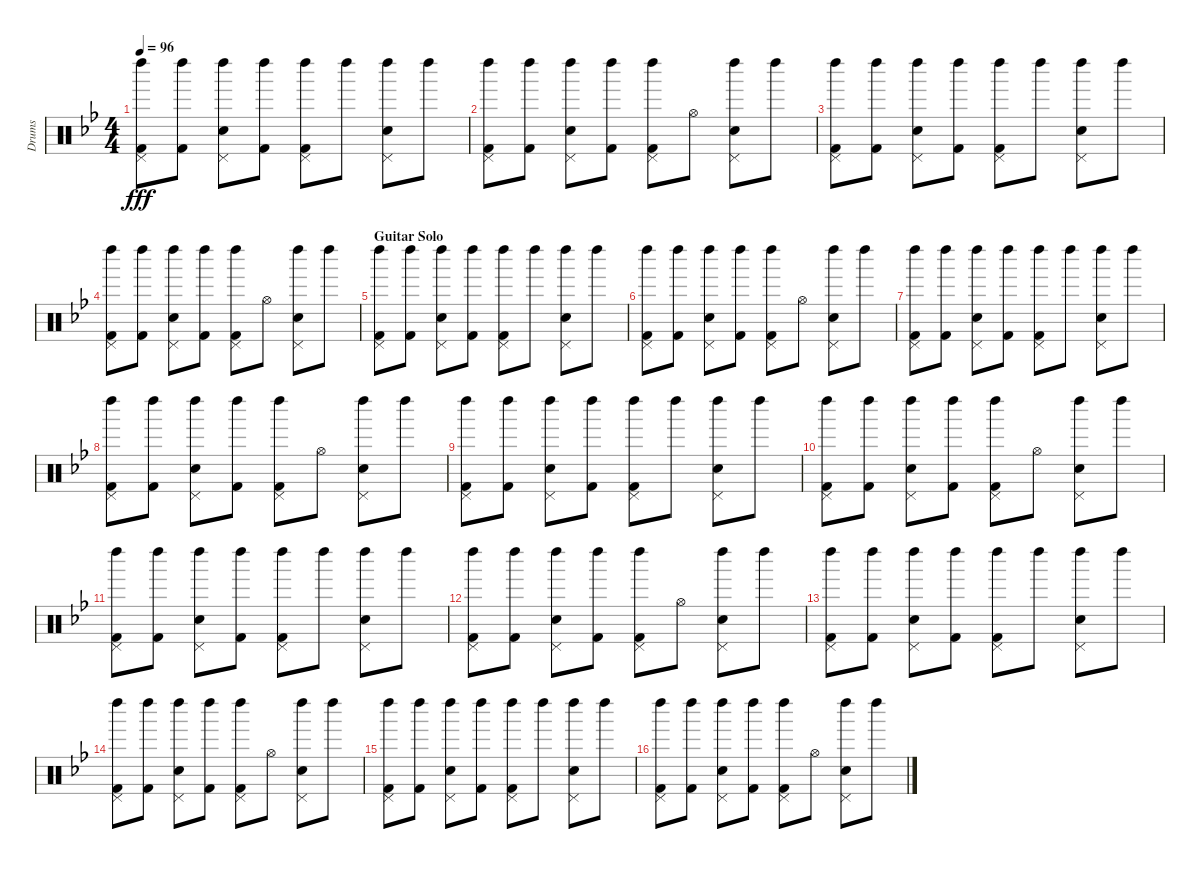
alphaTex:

\track ("Drums" "Drums") {instrument percussion}
\staff {score}
\articulation defaults
\ts (4 4)
\tempo 96
\clef neutral
\ks bb
("Left Maraca (hit)" "Pedal Hi-Hat (hit)" "Kick (hit) 2").8{dy fff} ("Left Maraca (hit)" "Kick (hit) 2").8 ("Left Maraca (hit)" "Pedal Hi-Hat (hit)" "Snare (hit) 2").8 ("Left Maraca (hit)" "Kick (hit) 2").8 ("Left Maraca (hit)" "Pedal Hi-Hat (hit)" "Kick (hit) 2").8 "Left Maraca (hit)".8 ("Left Maraca (hit)" "Pedal Hi-Hat (hit)" "Snare (hit) 2").8 "Left Maraca (hit)".8 |
("Left Maraca (hit)" "Pedal Hi-Hat (hit)" "Kick (hit) 2").8 ("Left Maraca (hit)" "Kick (hit) 2").8 ("Left Maraca (hit)" "Pedal Hi-Hat (hit)" "Snare (hit) 2").8 ("Left Maraca (hit)" "Kick (hit) 2").8 ("Left Maraca (hit)" "Pedal Hi-Hat (hit)" "Kick (hit) 2").8 "Hi-Hat (open)".8 ("Left Maraca (hit)" "Pedal Hi-Hat (hit)" "Snare (hit) 2").8 "Left Maraca (hit)".8 |
("Left Maraca (hit)" "Pedal Hi-Hat (hit)" "Kick (hit) 2").8 ("Left Maraca (hit)" "Kick (hit) 2").8 ("Left Maraca (hit)" "Pedal Hi-Hat (hit)" "Snare (hit) 2").8 ("Left Maraca (hit)" "Kick (hit) 2").8 ("Left Maraca (hit)" "Pedal Hi-Hat (hit)" "Kick (hit) 2").8 "Left Maraca (hit)".8 ("Left Maraca (hit)" "Pedal Hi-Hat (hit)" "Snare (hit) 2").8 "Left Maraca (hit)".8 |
("Left Maraca (hit)" "Pedal Hi-Hat (hit)" "Kick (hit) 2").8 ("Left Maraca (hit)" "Kick (hit) 2").8 ("Left Maraca (hit)" "Pedal Hi-Hat (hit)" "Snare (hit) 2").8 ("Left Maraca (hit)" "Kick (hit) 2").8 ("Left Maraca (hit)" "Pedal Hi-Hat (hit)" "Kick (hit) 2").8 "Hi-Hat (open)".8 ("Left Maraca (hit)" "Pedal Hi-Hat (hit)" "Snare (hit) 2").8 "Left Maraca (hit)".8 |
\section ("" "Guitar Solo")
("Left Maraca (hit)" "Pedal Hi-Hat (hit)" "Kick (hit) 2").8 ("Left Maraca (hit)" "Kick (hit) 2").8 ("Left Maraca (hit)" "Pedal Hi-Hat (hit)" "Snare (hit) 2").8 ("Left Maraca (hit)" "Kick (hit) 2").8 ("Left Maraca (hit)" "Pedal Hi-Hat (hit)" "Kick (hit) 2").8 "Left Maraca (hit)".8 ("Left Maraca (hit)" "Pedal Hi-Hat (hit)" "Snare (hit) 2").8 "Left Maraca (hit)".8 |
("Left Maraca (hit)" "Pedal Hi-Hat (hit)" "Kick (hit) 2").8 ("Left Maraca (hit)" "Kick (hit) 2").8 ("Left Maraca (hit)" "Pedal Hi-Hat (hit)" "Snare (hit) 2").8 ("Left Maraca (hit)" "Kick (hit) 2").8 ("Left Maraca (hit)" "Pedal Hi-Hat (hit)" "Kick (hit) 2").8 "Hi-Hat (open)".8 ("Left Maraca (hit)" "Pedal Hi-Hat (hit)" "Snare (hit) 2").8 "Left Maraca (hit)".8 |
("Left Maraca (hit)" "Pedal Hi-Hat (hit)" "Kick (hit) 2").8 ("Left Maraca (hit)" "Kick (hit) 2").8 ("Left Maraca (hit)" "Pedal Hi-Hat (hit)" "Snare (hit) 2").8 ("Left Maraca (hit)" "Kick (hit) 2").8 ("Left Maraca (hit)" "Pedal Hi-Hat (hit)" "Kick (hit) 2").8 "Left Maraca (hit)".8 ("Left Maraca (hit)" "Pedal Hi-Hat (hit)" "Snare (hit) 2").8 "Left Maraca (hit)".8 |
("Left Maraca (hit)" "Pedal Hi-Hat (hit)" "Kick (hit) 2").8 ("Left Maraca (hit)" "Kick (hit) 2").8 ("Left Maraca (hit)" "Pedal Hi-Hat (hit)" "Snare (hit) 2").8 ("Left Maraca (hit)" "Kick (hit) 2").8 ("Left Maraca (hit)" "Pedal Hi-Hat (hit)" "Kick (hit) 2").8 "Hi-Hat (open)".8 ("Left Maraca (hit)" "Pedal Hi-Hat (hit)" "Snare (hit) 2").8 "Left Maraca (hit)".8 |
("Left Maraca (hit)" "Pedal Hi-Hat (hit)" "Kick (hit) 2").8 ("Left Maraca (hit)" "Kick (hit) 2").8 ("Left Maraca (hit)" "Pedal Hi-Hat (hit)" "Snare (hit) 2").8 ("Left Maraca (hit)" "Kick (hit) 2").8 ("Left Maraca (hit)" "Pedal Hi-Hat (hit)" "Kick (hit) 2").8 "Left Maraca (hit)".8 ("Left Maraca (hit)" "Pedal Hi-Hat (hit)" "Snare (hit) 2").8 "Left Maraca (hit)".8 |
("Left Maraca (hit)" "Pedal Hi-Hat (hit)" "Kick (hit) 2").8 ("Left Maraca (hit)" "Kick (hit) 2").8 ("Left Maraca (hit)" "Pedal Hi-Hat (hit)" "Snare (hit) 2").8 ("Left Maraca (hit)" "Kick (hit) 2").8 ("Left Maraca (hit)" "Pedal Hi-Hat (hit)" "Kick (hit) 2").8 "Hi-Hat (open)".8 ("Left Maraca (hit)" "Pedal Hi-Hat (hit)" "Snare (hit) 2").8 "Left Maraca (hit)".8 |
("Left Maraca (hit)" "Pedal Hi-Hat (hit)" "Kick (hit) 2").8 ("Left Maraca (hit)" "Kick (hit) 2").8 ("Left Maraca (hit)" "Pedal Hi-Hat (hit)" "Snare (hit) 2").8 ("Left Maraca (hit)" "Kick (hit) 2").8 ("Left Maraca (hit)" "Pedal Hi-Hat (hit)" "Kick (hit) 2").8 "Left Maraca (hit)".8 ("Left Maraca (hit)" "Pedal Hi-Hat (hit)" "Snare (hit) 2").8 "Left Maraca (hit)".8 |
("Left Maraca (hit)" "Pedal Hi-Hat (hit)" "Kick (hit) 2").8 ("Left Maraca (hit)" "Kick (hit) 2").8 ("Left Maraca (hit)" "Pedal Hi-Hat (hit)" "Snare (hit) 2").8 ("Left Maraca (hit)" "Kick (hit) 2").8 ("Left Maraca (hit)" "Pedal Hi-Hat (hit)" "Kick (hit) 2").8 "Hi-Hat (open)".8 ("Left Maraca (hit)" "Pedal Hi-Hat (hit)" "Snare (hit) 2").8 "Left Maraca (hit)".8 |
("Left Maraca (hit)" "Pedal Hi-Hat (hit)" "Kick (hit) 2").8 ("Left Maraca (hit)" "Kick (hit) 2").8 ("Left Maraca (hit)" "Pedal Hi-Hat (hit)" "Snare (hit) 2").8 ("Left Maraca (hit)" "Kick (hit) 2").8 ("Left Maraca (hit)" "Pedal Hi-Hat (hit)" "Kick (hit) 2").8 "Left Maraca (hit)".8 ("Left Maraca (hit)" "Pedal Hi-Hat (hit)" "Snare (hit) 2").8 "Left Maraca (hit)".8 |
("Left Maraca (hit)" "Pedal Hi-Hat (hit)" "Kick (hit) 2").8 ("Left Maraca (hit)" "Kick (hit) 2").8 ("Left Maraca (hit)" "Pedal Hi-Hat (hit)" "Snare (hit) 2").8 ("Left Maraca (hit)" "Kick (hit) 2").8 ("Left Maraca (hit)" "Pedal Hi-Hat (hit)" "Kick (hit) 2").8 "Hi-Hat (open)".8 ("Left Maraca (hit)" "Pedal Hi-Hat (hit)" "Snare (hit) 2").8 "Left Maraca (hit)".8 |
("Left Maraca (hit)" "Pedal Hi-Hat (hit)" "Kick (hit) 2").8 ("Left Maraca (hit)" "Kick (hit) 2").8 ("Left Maraca (hit)" "Pedal Hi-Hat (hit)" "Snare (hit) 2").8 ("Left Maraca (hit)" "Kick (hit) 2").8 ("Left Maraca (hit)" "Pedal Hi-Hat (hit)" "Kick (hit) 2").8 "Left Maraca (hit)".8 ("Left Maraca (hit)" "Pedal Hi-Hat (hit)" "Snare (hit) 2").8 "Left Maraca (hit)".8 |
("Left Maraca (hit)" "Pedal Hi-Hat (hit)" "Kick (hit) 2").8 ("Left Maraca (hit)" "Kick (hit) 2").8 ("Left Maraca (hit)" "Pedal Hi-Hat (hit)" "Snare (hit) 2").8 ("Left Maraca (hit)" "Kick (hit) 2").8 ("Left Maraca (hit)" "Pedal Hi-Hat (hit)" "Kick (hit) 2").8 "Hi-Hat (open)".8 ("Left Maraca (hit)" "Pedal Hi-Hat (hit)" "Snare (hit) 2").8 "Left Maraca (hit)".8
